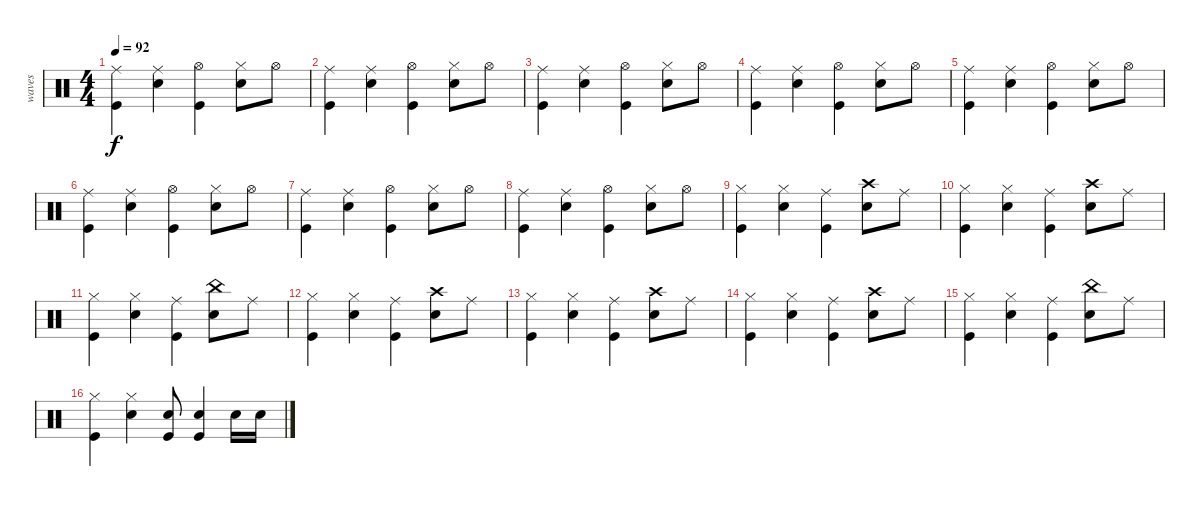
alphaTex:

\track ("waves" "waves") {instrument percussion}
\staff {score}
\articulation defaults
\ts (4 4)
\tempo 92
\clef neutral
\ks c
("Ride (middle)" "Kick (hit)").4{dy f} ("Ride (middle)" "Electric Snare (hit)").4 ("Hi-Hat (open)" "Kick (hit)").4 ("Hi-Hat (closed)" "Electric Snare (hit)").8 "Hi-Hat (open)".8 |
("Ride (middle)" "Kick (hit)").4 ("Ride (middle)" "Electric Snare (hit)").4 ("Hi-Hat (open)" "Kick (hit)").4 ("Hi-Hat (closed)" "Electric Snare (hit)").8 "Hi-Hat (open)".8 |
("Ride (middle)" "Kick (hit)").4 ("Ride (middle)" "Electric Snare (hit)").4 ("Hi-Hat (open)" "Kick (hit)").4 ("Hi-Hat (closed)" "Electric Snare (hit)").8 "Hi-Hat (open)".8 |
("Ride (middle)" "Kick (hit)").4 ("Ride (middle)" "Electric Snare (hit)").4 ("Hi-Hat (open)" "Kick (hit)").4 ("Hi-Hat (closed)" "Electric Snare (hit)").8 "Hi-Hat (open)".8 |
("Ride (middle)" "Kick (hit)").4 ("Ride (middle)" "Electric Snare (hit)").4 ("Hi-Hat (open)" "Kick (hit)").4 ("Hi-Hat (closed)" "Electric Snare (hit)").8 "Hi-Hat (open)".8 |
("Ride (middle)" "Kick (hit)").4 ("Ride (middle)" "Electric Snare (hit)").4 ("Hi-Hat (open)" "Kick (hit)").4 ("Hi-Hat (closed)" "Electric Snare (hit)").8 "Hi-Hat (open)".8 |
("Ride (middle)" "Kick (hit)").4 ("Ride (middle)" "Electric Snare (hit)").4 ("Hi-Hat (open)" "Kick (hit)").4 ("Hi-Hat (closed)" "Electric Snare (hit)").8 "Hi-Hat (open)".8 |
("Ride (middle)" "Kick (hit)").4 ("Ride (middle)" "Electric Snare (hit)").4 ("Hi-Hat (open)" "Kick (hit)").4 ("Hi-Hat (closed)" "Electric Snare (hit)").8 "Hi-Hat (open)".8 |
("Hi-Hat (closed)" "Kick (hit)").4 ("Hi-Hat (closed)" "Electric Snare (hit)").4 ("Ride (middle)" "Kick (hit)").4 ("Crash high (hit)" "Electric Snare (hit)").8 "Ride (middle)".8 |
("Hi-Hat (closed)" "Kick (hit)").4 ("Hi-Hat (closed)" "Electric Snare (hit)").4 ("Ride (middle)" "Kick (hit)").4 ("Crash high (hit)" "Electric Snare (hit)").8 "Ride (middle)".8 |
("Hi-Hat (closed)" "Kick (hit)").4 ("Hi-Hat (closed)" "Electric Snare (hit)").4 ("Ride (middle)" "Kick (hit)").4 ("China (hit)" "Electric Snare (hit)").8 "Ride (middle)".8 |
("Hi-Hat (closed)" "Kick (hit)").4 ("Hi-Hat (closed)" "Electric Snare (hit)").4 ("Ride (middle)" "Kick (hit)").4 ("Crash high (hit)" "Electric Snare (hit)").8 "Ride (middle)".8 |
("Hi-Hat (closed)" "Kick (hit)").4 ("Hi-Hat (closed)" "Electric Snare (hit)").4 ("Ride (middle)" "Kick (hit)").4 ("Crash high (hit)" "Electric Snare (hit)").8 "Ride (middle)".8 |
("Hi-Hat (closed)" "Kick (hit)").4 ("Hi-Hat (closed)" "Electric Snare (hit)").4 ("Ride (middle)" "Kick (hit)").4 ("Crash high (hit)" "Electric Snare (hit)").8 "Ride (middle)".8 |
("Hi-Hat (closed)" "Kick (hit)").4 ("Hi-Hat (closed)" "Electric Snare (hit)").4 ("Ride (middle)" "Kick (hit)").4 ("China (hit)" "Electric Snare (hit)").8 "Ride (middle)".8 |
("Hi-Hat (closed)" "Kick (hit)").4 ("Hi-Hat (closed)" "Electric Snare (hit)").4 ("Electric Snare (hit)" "Kick (hit)").8 ("Electric Snare (hit)" "Kick (hit)").4 "Electric Snare (hit)".16 "Electric Snare (hit)".16
